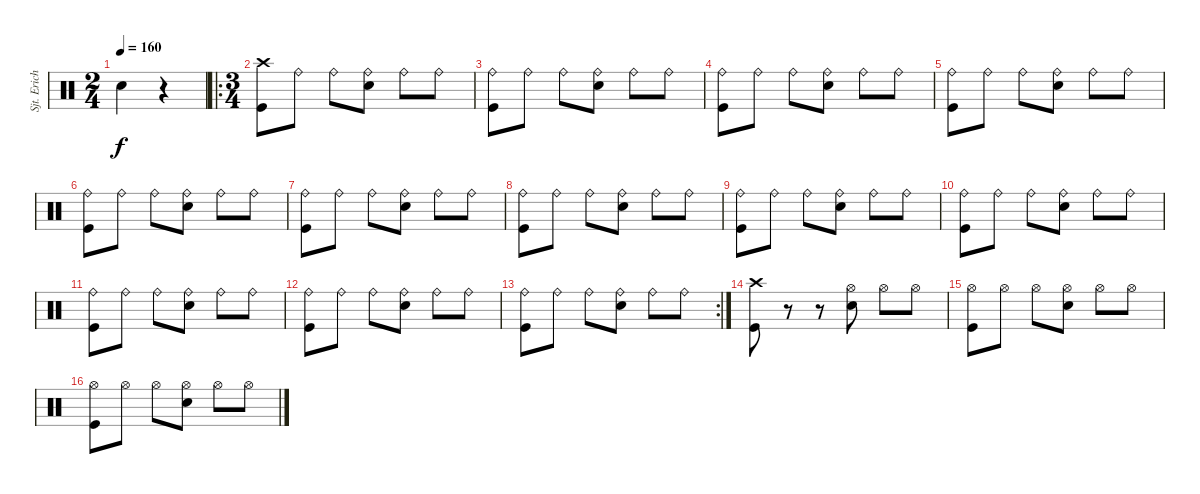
\track ("Sjt. Erichsen" "Sjt. Erich") {instrument percussion}
\staff {score}
\articulation defaults
\ts (2 4)
\tempo 160
\clef neutral
\ks c "Electric Snare (hit)".4{dy f}
r.4 |
\ro
\ts (3 4)
("Crash high (hit)" "Kick (hit)").8 "Ride (bell)".8 "Ride (bell)".8 ("Ride (bell)" "Electric Snare (hit)").8 "Ride (bell)".8 "Ride (bell)".8 |
("Ride (bell)" "Kick (hit)").8 "Ride (bell)".8 "Ride (bell)".8 ("Ride (bell)" "Electric Snare (hit)").8 "Ride (bell)".8 "Ride (bell)".8 |
("Ride (bell)" "Kick (hit)").8 "Ride (bell)".8 "Ride (bell)".8 ("Ride (bell)" "Electric Snare (hit)").8 "Ride (bell)".8 "Ride (bell)".8 |
("Ride (bell)" "Kick (hit)").8 "Ride (bell)".8 "Ride (bell)".8 ("Ride (bell)" "Electric Snare (hit)").8 "Ride (bell)".8 "Ride (bell)".8 |
("Ride (bell)" "Kick (hit)").8 "Ride (bell)".8 "Ride (bell)".8 ("Ride (bell)" "Electric Snare (hit)").8 "Ride (bell)".8 "Ride (bell)".8 |
("Ride (bell)" "Kick (hit)").8 "Ride (bell)".8 "Ride (bell)".8 ("Ride (bell)" "Electric Snare (hit)").8 "Ride (bell)".8 "Ride (bell)".8 |
("Ride (bell)" "Kick (hit)").8 "Ride (bell)".8 "Ride (bell)".8 ("Ride (bell)" "Electric Snare (hit)").8 "Ride (bell)".8 "Ride (bell)".8 |
("Ride (bell)" "Kick (hit)").8 "Ride (bell)".8 "Ride (bell)".8 ("Ride (bell)" "Electric Snare (hit)").8 "Ride (bell)".8 "Ride (bell)".8 |
("Ride (bell)" "Kick (hit)").8 "Ride (bell)".8 "Ride (bell)".8 ("Ride (bell)" "Electric Snare (hit)").8 "Ride (bell)".8 "Ride (bell)".8 |
("Ride (bell)" "Kick (hit)").8 "Ride (bell)".8 "Ride (bell)".8 ("Ride (bell)" "Electric Snare (hit)").8 "Ride (bell)".8 "Ride (bell)".8 |
("Ride (bell)" "Kick (hit)").8 "Ride (bell)".8 "Ride (bell)".8 ("Ride (bell)" "Electric Snare (hit)").8 "Ride (bell)".8 "Ride (bell)".8 |
\rc 2
("Ride (bell)" "Kick (hit)").8 "Ride (bell)".8 "Ride (bell)".8 ("Ride (bell)" "Electric Snare (hit)").8 "Ride (bell)".8 "Ride (bell)".8 |
("Crash high (hit)" "Kick (hit)").8 r.8 r.8 ("Hi-Hat (open)" "Electric Snare (hit)").8 "Hi-Hat (open)".8 "Hi-Hat (open)".8 |
("Hi-Hat (open)" "Kick (hit)").8 "Hi-Hat (open)".8 "Hi-Hat (open)".8 ("Hi-Hat (open)" "Electric Snare (hit)").8 "Hi-Hat (open)".8 "Hi-Hat (open)".8 |
("Hi-Hat (open)" "Kick (hit)").8 "Hi-Hat (open)".8 "Hi-Hat (open)".8 ("Hi-Hat (open)" "Electric Snare (hit)").8 "Hi-Hat (open)".8 "Hi-Hat (open)".8
